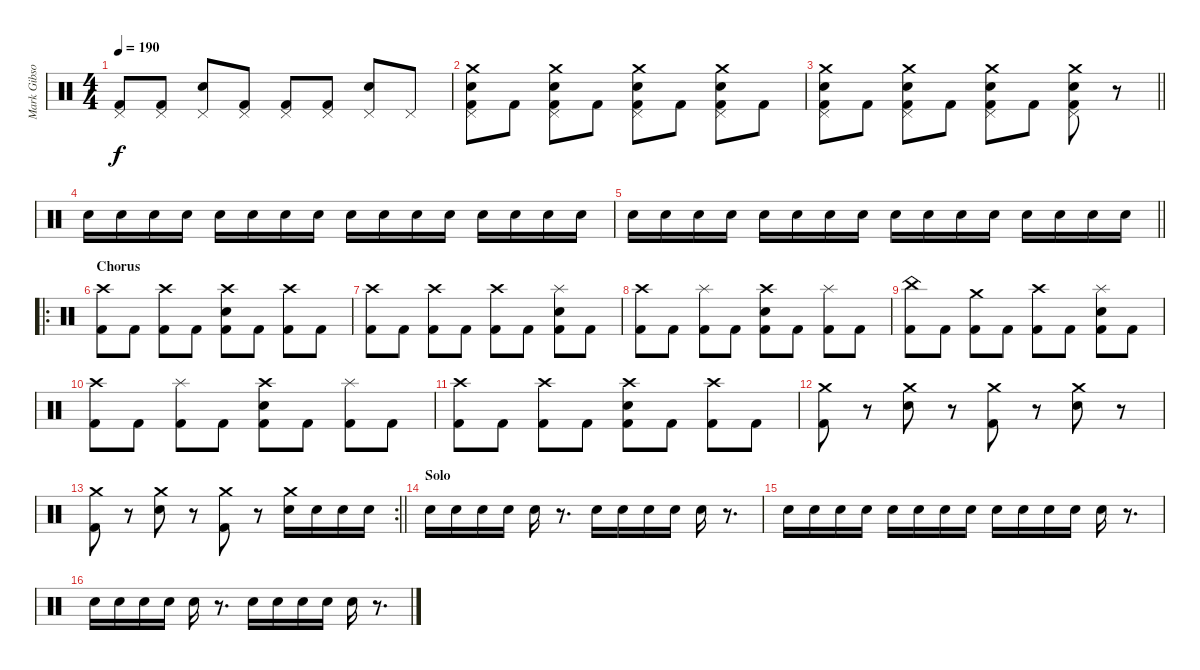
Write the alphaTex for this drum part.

\track ("Mark Gibson" "Mark Gibso") {instrument percussion}
\staff {score}
\articulation defaults
\ts (4 4)
\tempo 190
\clef neutral
\ks c
("Pedal Hi-Hat (hit)" "Kick (hit) 2").8{dy f} ("Pedal Hi-Hat (hit)" "Kick (hit) 2").8 ("Pedal Hi-Hat (hit)" "Electric Snare (hit)").8 ("Pedal Hi-Hat (hit)" "Kick (hit) 2").8 ("Pedal Hi-Hat (hit)" "Kick (hit) 2").8 ("Pedal Hi-Hat (hit)" "Kick (hit) 2").8 ("Pedal Hi-Hat (hit)" "Electric Snare (hit)").8 "Pedal Hi-Hat (hit)".8 |
("Crash medium (hit)" "Pedal Hi-Hat (hit)" "Electric Snare (hit)" "Kick (hit) 2").8 "Kick (hit) 2".8 ("Crash medium (hit)" "Pedal Hi-Hat (hit)" "Electric Snare (hit)" "Kick (hit) 2").8 "Kick (hit) 2".8 ("Crash medium (hit)" "Pedal Hi-Hat (hit)" "Electric Snare (hit)" "Kick (hit) 2").8 "Kick (hit) 2".8 ("Crash medium (hit)" "Pedal Hi-Hat (hit)" "Electric Snare (hit)" "Kick (hit) 2").8 "Kick (hit) 2".8 |
\barLineRight lightlight
("Crash medium (hit)" "Pedal Hi-Hat (hit)" "Electric Snare (hit)" "Kick (hit) 2").8 "Kick (hit) 2".8 ("Crash medium (hit)" "Pedal Hi-Hat (hit)" "Electric Snare (hit)" "Kick (hit) 2").8 "Kick (hit) 2".8 ("Crash medium (hit)" "Pedal Hi-Hat (hit)" "Electric Snare (hit)" "Kick (hit) 2").8 "Kick (hit) 2".8 ("Crash medium (hit)" "Pedal Hi-Hat (hit)" "Electric Snare (hit)" "Kick (hit) 2").8 r.8 |
"Electric Snare (hit)".16 "Electric Snare (hit)".16 "Electric Snare (hit)".16 "Electric Snare (hit)".16 "Electric Snare (hit)".16 "Electric Snare (hit)".16 "Electric Snare (hit)".16 "Electric Snare (hit)".16 "Electric Snare (hit)".16 "Electric Snare (hit)".16 "Electric Snare (hit)".16 "Electric Snare (hit)".16 "Electric Snare (hit)".16 "Electric Snare (hit)".16 "Electric Snare (hit)".16 "Electric Snare (hit)".16 |
\barLineRight lightlight "Electric Snare (hit)".16 "Electric Snare (hit)".16 "Electric Snare (hit)".16 "Electric Snare (hit)".16 "Electric Snare (hit)".16 "Electric Snare (hit)".16 "Electric Snare (hit)".16 "Electric Snare (hit)".16 "Electric Snare (hit)".16 "Electric Snare (hit)".16 "Electric Snare (hit)".16 "Electric Snare (hit)".16 "Electric Snare (hit)".16 "Electric Snare (hit)".16 "Electric Snare (hit)".16 "Electric Snare (hit)".16
|
\ro
\section ("" "Chorus")
("Crash high (hit)" "Kick (hit) 2").8 "Kick (hit) 2".8 ("Crash high (hit)" "Kick (hit) 2").8 "Kick (hit) 2".8 ("Crash high (hit)" "Electric Snare (hit)" "Kick (hit) 2").8 "Kick (hit) 2".8 ("Crash high (hit)" "Kick (hit) 2").8 "Kick (hit) 2".8 |
("Crash high (hit)" "Kick (hit) 2").8 "Kick (hit) 2".8 ("Crash high (hit)" "Kick (hit) 2").8 "Kick (hit) 2".8 ("Crash high (hit)" "Kick (hit) 2").8 "Kick (hit) 2".8 ("Splash (hit)" "Electric Snare (hit)" "Kick (hit) 2").8 "Kick (hit) 2".8 |
("Crash high (hit)" "Kick (hit) 2").8 "Kick (hit) 2".8 ("Splash (hit)" "Kick (hit) 2").8 "Kick (hit) 2".8 ("Crash high (hit)" "Electric Snare (hit)" "Kick (hit) 2").8 "Kick (hit) 2".8 ("Splash (hit)" "Kick (hit) 2").8 "Kick (hit) 2".8 |
("China (hit)" "Kick (hit) 2").8 "Kick (hit) 2".8 ("Crash medium (hit)" "Kick (hit) 2").8 "Kick (hit) 2".8 ("Crash high (hit)" "Kick (hit) 2").8 "Kick (hit) 2".8 ("Splash (hit)" "Electric Snare (hit)" "Kick (hit) 2").8 "Kick (hit) 2".8 |
("Crash high (hit)" "Kick (hit) 2").8 "Kick (hit) 2".8 ("Splash (hit)" "Kick (hit) 2").8 "Kick (hit) 2".8 ("Crash high (hit)" "Electric Snare (hit)" "Kick (hit) 2").8 "Kick (hit) 2".8 ("Splash (hit)" "Kick (hit) 2").8 "Kick (hit) 2".8 |
("Crash high (hit)" "Kick (hit) 2").8 "Kick (hit) 2".8 ("Crash high (hit)" "Kick (hit) 2").8 "Kick (hit) 2".8 ("Crash high (hit)" "Electric Snare (hit)" "Kick (hit) 2").8 "Kick (hit) 2".8 ("Crash high (hit)" "Kick (hit) 2").8 "Kick (hit) 2".8 |
("Crash medium (hit)" "Kick (hit) 2").8 r.8 ("Crash medium (hit)" "Electric Snare (hit)").8 r.8 ("Crash medium (hit)" "Kick (hit) 2").8 r.8 ("Crash medium (hit)" "Electric Snare (hit)").8 r.8 |
\rc 2
\barLineRight lightlight
("Crash medium (hit)" "Kick (hit) 2").8 r.8 ("Crash medium (hit)" "Electric Snare (hit)").8 r.8 ("Crash medium (hit)" "Kick (hit) 2").8 r.8 ("Crash medium (hit)" "Electric Snare (hit)").16 "Electric Snare (hit)".16 "Electric Snare (hit)".16 "Electric Snare (hit)".16 |
\section ("" "Solo")
"Electric Snare (hit)".16 "Electric Snare (hit)".16 "Electric Snare (hit)".16 "Electric Snare (hit)".16 "Electric Snare (hit)".16 r.8{d} "Electric Snare (hit)".16 "Electric Snare (hit)".16 "Electric Snare (hit)".16 "Electric Snare (hit)".16 "Electric Snare (hit)".16 r.8{d} |
"Electric Snare (hit)".16 "Electric Snare (hit)".16 "Electric Snare (hit)".16 "Electric Snare (hit)".16 "Electric Snare (hit)".16 "Electric Snare (hit)".16 "Electric Snare (hit)".16 "Electric Snare (hit)".16 "Electric Snare (hit)".16 "Electric Snare (hit)".16 "Electric Snare (hit)".16 "Electric Snare (hit)".16 "Electric Snare (hit)".16 r.8{d} |
"Electric Snare (hit)".16 "Electric Snare (hit)".16 "Electric Snare (hit)".16 "Electric Snare (hit)".16 "Electric Snare (hit)".16 r.8{d} "Electric Snare (hit)".16 "Electric Snare (hit)".16 "Electric Snare (hit)".16 "Electric Snare (hit)".16 "Electric Snare (hit)".16 r.8{d}
